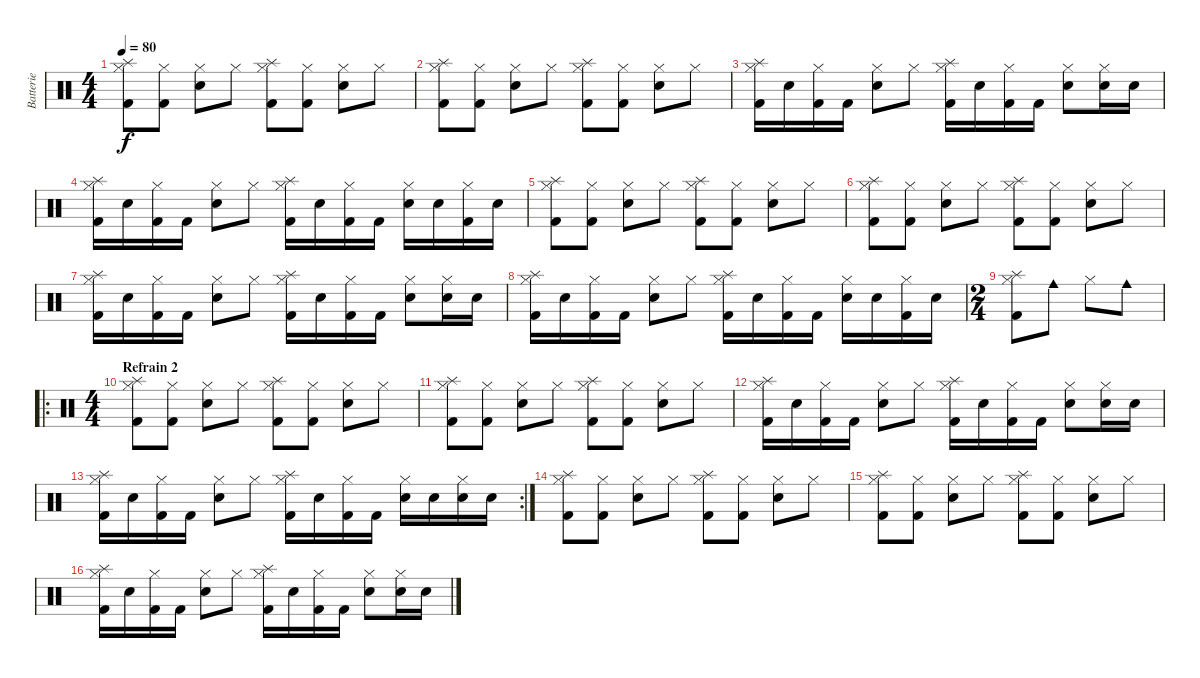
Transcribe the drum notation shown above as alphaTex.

\track ("Batterie" "Batterie") {instrument percussion}
\staff {score}
\articulation defaults
\ts (4 4)
\tempo 80
\clef neutral
\ks c
("Splash (hit)" "Hi-Hat (closed)" "Kick (hit) 2").8{dy f} ("Hi-Hat (closed)" "Kick (hit) 2").8 ("Hi-Hat (closed)" "Snare (hit) 2").8 "Hi-Hat (closed)".8 ("Splash (hit)" "Hi-Hat (closed)" "Kick (hit) 2").8 ("Hi-Hat (closed)" "Kick (hit) 2").8 ("Hi-Hat (closed)" "Snare (hit) 2").8 "Hi-Hat (closed)".8 |
("Splash (hit)" "Hi-Hat (closed)" "Kick (hit) 2").8 ("Hi-Hat (closed)" "Kick (hit) 2").8 ("Hi-Hat (closed)" "Snare (hit) 2").8 "Hi-Hat (closed)".8 ("Splash (hit)" "Hi-Hat (closed)" "Kick (hit) 2").8 ("Hi-Hat (closed)" "Kick (hit) 2").8 ("Hi-Hat (closed)" "Snare (hit) 2").8 "Hi-Hat (closed)".8 |
("Splash (hit)" "Hi-Hat (closed)" "Kick (hit) 2").16 "Snare (hit) 2".16 ("Hi-Hat (closed)" "Kick (hit) 2").16 "Kick (hit) 2".16 ("Hi-Hat (closed)" "Snare (hit) 2").8 "Hi-Hat (closed)".8 ("Splash (hit)" "Hi-Hat (closed)" "Kick (hit) 2").16 "Snare (hit) 2".16 ("Hi-Hat (closed)" "Kick (hit) 2").16 "Kick (hit) 2".16 ("Hi-Hat (closed)" "Snare (hit) 2").8 ("Hi-Hat (closed)" "Snare (hit) 2").16 "Snare (hit) 2".16 |
("Splash (hit)" "Hi-Hat (closed)" "Kick (hit) 2").16 "Snare (hit) 2".16 ("Hi-Hat (closed)" "Kick (hit) 2").16 "Kick (hit) 2".16 ("Hi-Hat (closed)" "Snare (hit) 2").8 "Hi-Hat (closed)".8 ("Splash (hit)" "Hi-Hat (closed)" "Kick (hit) 2").16 "Snare (hit) 2".16 ("Hi-Hat (closed)" "Kick (hit) 2").16 "Kick (hit) 2".16 ("Hi-Hat (closed)" "Snare (hit) 2").16 "Snare (hit) 2".16 ("Hi-Hat (closed)" "Kick (hit) 2").16 "Snare (hit) 2".16 |
("Splash (hit)" "Hi-Hat (closed)" "Kick (hit) 2").8 ("Hi-Hat (closed)" "Kick (hit) 2").8 ("Hi-Hat (closed)" "Snare (hit) 2").8 "Hi-Hat (closed)".8 ("Splash (hit)" "Hi-Hat (closed)" "Kick (hit) 2").8 ("Hi-Hat (closed)" "Kick (hit) 2").8 ("Hi-Hat (closed)" "Snare (hit) 2").8 "Hi-Hat (closed)".8 |
("Splash (hit)" "Hi-Hat (closed)" "Kick (hit) 2").8 ("Hi-Hat (closed)" "Kick (hit) 2").8 ("Hi-Hat (closed)" "Snare (hit) 2").8 "Hi-Hat (closed)".8 ("Splash (hit)" "Hi-Hat (closed)" "Kick (hit) 2").8 ("Hi-Hat (closed)" "Kick (hit) 2").8 ("Hi-Hat (closed)" "Snare (hit) 2").8 "Hi-Hat (closed)".8 |
("Splash (hit)" "Hi-Hat (closed)" "Kick (hit) 2").16 "Snare (hit) 2".16 ("Hi-Hat (closed)" "Kick (hit) 2").16 "Kick (hit) 2".16 ("Hi-Hat (closed)" "Snare (hit) 2").8 "Hi-Hat (closed)".8 ("Splash (hit)" "Hi-Hat (closed)" "Kick (hit) 2").16 "Snare (hit) 2".16 ("Hi-Hat (closed)" "Kick (hit) 2").16 "Kick (hit) 2".16 ("Hi-Hat (closed)" "Snare (hit) 2").8 ("Hi-Hat (closed)" "Snare (hit) 2").16 "Snare (hit) 2".16 |
("Splash (hit)" "Hi-Hat (closed)" "Kick (hit) 2").16 "Snare (hit) 2".16 ("Hi-Hat (closed)" "Kick (hit) 2").16 "Kick (hit) 2".16 ("Hi-Hat (closed)" "Snare (hit) 2").8 "Hi-Hat (closed)".8 ("Splash (hit)" "Hi-Hat (closed)" "Kick (hit) 2").16 "Snare (hit) 2".16 ("Hi-Hat (closed)" "Kick (hit) 2").16 "Kick (hit) 2".16 ("Hi-Hat (closed)" "Snare (hit) 2").16 "Snare (hit) 2".16 ("Hi-Hat (closed)" "Kick (hit) 2").16 "Snare (hit) 2".16 |
\ts (2 4)
("Splash (hit)" "Hi-Hat (closed)" "Kick (hit) 2").8 "Cowbell medium (hit)".8 "Hi-Hat (closed)".8 "Cowbell medium (hit)".8 |
\ro
\ts (4 4)
\section ("" "Refrain 2")
("Splash (hit)" "Hi-Hat (closed)" "Kick (hit) 2").8 ("Hi-Hat (closed)" "Kick (hit) 2").8 ("Hi-Hat (closed)" "Snare (hit) 2").8 "Hi-Hat (closed)".8 ("Splash (hit)" "Hi-Hat (closed)" "Kick (hit) 2").8 ("Hi-Hat (closed)" "Kick (hit) 2").8 ("Hi-Hat (closed)" "Snare (hit) 2").8 "Hi-Hat (closed)".8 |
("Splash (hit)" "Hi-Hat (closed)" "Kick (hit) 2").8 ("Hi-Hat (closed)" "Kick (hit) 2").8 ("Hi-Hat (closed)" "Snare (hit) 2").8 "Hi-Hat (closed)".8 ("Splash (hit)" "Hi-Hat (closed)" "Kick (hit) 2").8 ("Hi-Hat (closed)" "Kick (hit) 2").8 ("Hi-Hat (closed)" "Snare (hit) 2").8 "Hi-Hat (closed)".8 |
("Splash (hit)" "Hi-Hat (closed)" "Kick (hit) 2").16 "Snare (hit) 2".16 ("Hi-Hat (closed)" "Kick (hit) 2").16 "Kick (hit) 2".16 ("Hi-Hat (closed)" "Snare (hit) 2").8 "Hi-Hat (closed)".8 ("Splash (hit)" "Hi-Hat (closed)" "Kick (hit) 2").16 "Snare (hit) 2".16 ("Hi-Hat (closed)" "Kick (hit) 2").16 "Kick (hit) 2".16 ("Hi-Hat (closed)" "Snare (hit) 2").8 ("Hi-Hat (closed)" "Snare (hit) 2").16 "Snare (hit) 2".16 |
\rc 2
("Splash (hit)" "Hi-Hat (closed)" "Kick (hit) 2").16 "Snare (hit) 2".16 ("Hi-Hat (closed)" "Kick (hit) 2").16 "Kick (hit) 2".16 ("Hi-Hat (closed)" "Snare (hit) 2").8 "Hi-Hat (closed)".8 ("Splash (hit)" "Hi-Hat (closed)" "Kick (hit) 2").16 "Snare (hit) 2".16 ("Hi-Hat (closed)" "Kick (hit) 2").16 "Kick (hit) 2".16 ("Hi-Hat (closed)" "Snare (hit) 2").16 "Snare (hit) 2".16 ("Hi-Hat (closed)" "Snare (hit) 2").16 "Snare (hit) 2".16 |
("Splash (hit)" "Hi-Hat (closed)" "Kick (hit) 2").8 ("Hi-Hat (closed)" "Kick (hit) 2").8 ("Hi-Hat (closed)" "Snare (hit) 2").8 "Hi-Hat (closed)".8 ("Splash (hit)" "Hi-Hat (closed)" "Kick (hit) 2").8 ("Hi-Hat (closed)" "Kick (hit) 2").8 ("Hi-Hat (closed)" "Snare (hit) 2").8 "Hi-Hat (closed)".8 |
("Splash (hit)" "Hi-Hat (closed)" "Kick (hit) 2").8 ("Hi-Hat (closed)" "Kick (hit) 2").8 ("Hi-Hat (closed)" "Snare (hit) 2").8 "Hi-Hat (closed)".8 ("Splash (hit)" "Hi-Hat (closed)" "Kick (hit) 2").8 ("Hi-Hat (closed)" "Kick (hit) 2").8 ("Hi-Hat (closed)" "Snare (hit) 2").8 "Hi-Hat (closed)".8 |
("Splash (hit)" "Hi-Hat (closed)" "Kick (hit) 2").16 "Snare (hit) 2".16 ("Hi-Hat (closed)" "Kick (hit) 2").16 "Kick (hit) 2".16 ("Hi-Hat (closed)" "Snare (hit) 2").8 "Hi-Hat (closed)".8 ("Splash (hit)" "Hi-Hat (closed)" "Kick (hit) 2").16 "Snare (hit) 2".16 ("Hi-Hat (closed)" "Kick (hit) 2").16 "Kick (hit) 2".16 ("Hi-Hat (closed)" "Snare (hit) 2").8 ("Hi-Hat (closed)" "Snare (hit) 2").16 "Snare (hit) 2".16
